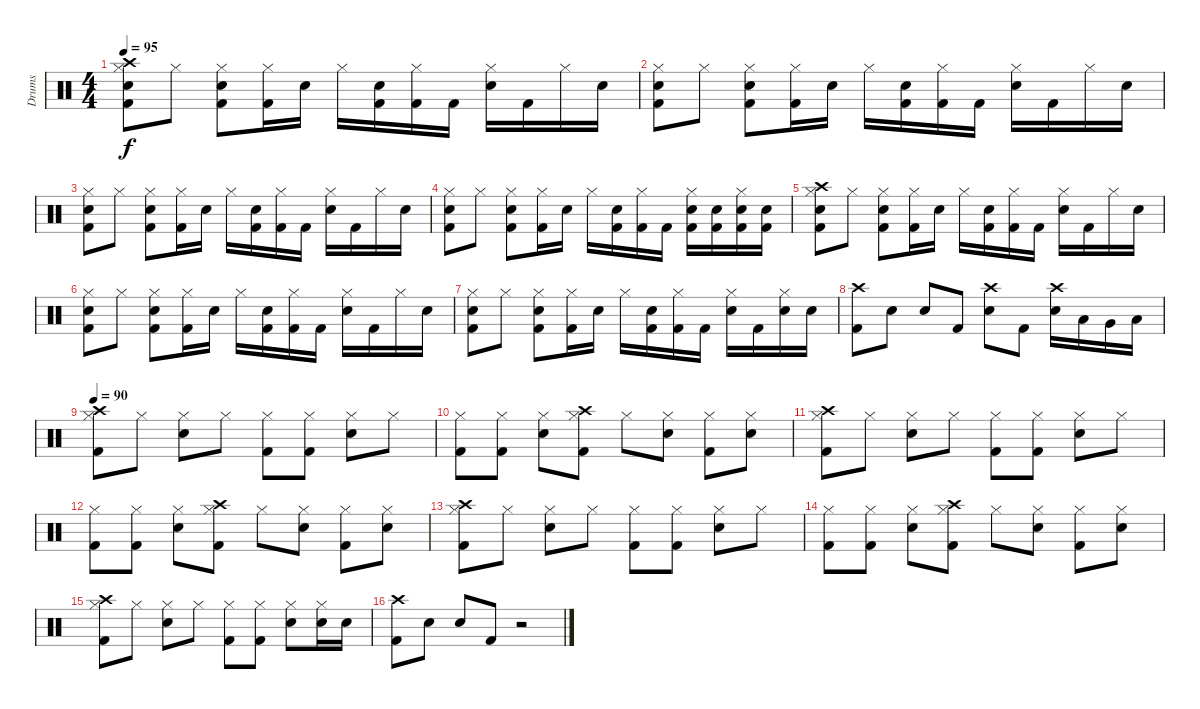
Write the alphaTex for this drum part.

\track ("Drums" "Drums") {instrument percussion}
\staff {score}
\articulation defaults
\ts (4 4)
\tempo 95
\clef neutral
\ks c
("Hi-Hat (closed)" "Kick (hit) 2" "Crash high (hit)" "Electric Snare (hit)").8{dy f} "Hi-Hat (closed)".8 ("Hi-Hat (closed)" "Kick (hit) 2" "Electric Snare (hit)").8 ("Hi-Hat (closed)" "Kick (hit) 2").16 "Electric Snare (hit)".16 "Hi-Hat (closed)".16 ("Electric Snare (hit)" "Kick (hit) 2").16 ("Hi-Hat (closed)" "Kick (hit) 2").16 "Kick (hit) 2".16 ("Hi-Hat (closed)" "Electric Snare (hit)").16 "Kick (hit) 2".16 "Hi-Hat (closed)".16 "Electric Snare (hit)".16 |
("Hi-Hat (closed)" "Kick (hit) 2" "Electric Snare (hit)").8 "Hi-Hat (closed)".8 ("Hi-Hat (closed)" "Kick (hit) 2" "Electric Snare (hit)").8 ("Hi-Hat (closed)" "Kick (hit) 2").16 "Electric Snare (hit)".16 "Hi-Hat (closed)".16 ("Electric Snare (hit)" "Kick (hit) 2").16 ("Hi-Hat (closed)" "Kick (hit) 2").16 "Kick (hit) 2".16 ("Hi-Hat (closed)" "Electric Snare (hit)").16 "Kick (hit) 2".16 "Hi-Hat (closed)".16 "Electric Snare (hit)".16 |
("Hi-Hat (closed)" "Kick (hit) 2" "Electric Snare (hit)").8 "Hi-Hat (closed)".8 ("Hi-Hat (closed)" "Kick (hit) 2" "Electric Snare (hit)").8 ("Hi-Hat (closed)" "Kick (hit) 2").16 "Electric Snare (hit)".16 "Hi-Hat (closed)".16 ("Electric Snare (hit)" "Kick (hit) 2").16 ("Hi-Hat (closed)" "Kick (hit) 2").16 "Kick (hit) 2".16 ("Hi-Hat (closed)" "Electric Snare (hit)").16 "Kick (hit) 2".16 "Hi-Hat (closed)".16 "Electric Snare (hit)".16 |
("Hi-Hat (closed)" "Kick (hit) 2" "Electric Snare (hit)").8 "Hi-Hat (closed)".8 ("Hi-Hat (closed)" "Kick (hit) 2" "Electric Snare (hit)").8 ("Hi-Hat (closed)" "Kick (hit) 2").16 "Electric Snare (hit)".16 "Hi-Hat (closed)".16 ("Electric Snare (hit)" "Kick (hit) 2").16 ("Hi-Hat (closed)" "Kick (hit) 2").16 "Kick (hit) 2".16 ("Kick (hit) 2" "Hi-Hat (closed)" "Electric Snare (hit)").16 ("Electric Snare (hit)" "Kick (hit) 2").16 ("Kick (hit) 2" "Hi-Hat (closed)" "Electric Snare (hit)").16 ("Kick (hit) 2" "Electric Snare (hit)").16 |
("Hi-Hat (closed)" "Kick (hit) 2" "Crash high (hit)" "Electric Snare (hit)").8 "Hi-Hat (closed)".8 ("Hi-Hat (closed)" "Kick (hit) 2" "Electric Snare (hit)").8 ("Hi-Hat (closed)" "Kick (hit) 2").16 "Electric Snare (hit)".16 "Hi-Hat (closed)".16 ("Electric Snare (hit)" "Kick (hit) 2").16 ("Hi-Hat (closed)" "Kick (hit) 2").16 "Kick (hit) 2".16 ("Hi-Hat (closed)" "Electric Snare (hit)").16 "Kick (hit) 2".16 "Hi-Hat (closed)".16 "Electric Snare (hit)".16 |
("Hi-Hat (closed)" "Kick (hit) 2" "Electric Snare (hit)").8 "Hi-Hat (closed)".8 ("Hi-Hat (closed)" "Kick (hit) 2" "Electric Snare (hit)").8 ("Hi-Hat (closed)" "Kick (hit) 2").16 "Electric Snare (hit)".16 "Hi-Hat (closed)".16 ("Electric Snare (hit)" "Kick (hit) 2").16 ("Hi-Hat (closed)" "Kick (hit) 2").16 "Kick (hit) 2".16 ("Hi-Hat (closed)" "Electric Snare (hit)").16 "Kick (hit) 2".16 "Hi-Hat (closed)".16 "Electric Snare (hit)".16 |
("Hi-Hat (closed)" "Kick (hit) 2" "Electric Snare (hit)").8 "Hi-Hat (closed)".8 ("Hi-Hat (closed)" "Kick (hit) 2" "Electric Snare (hit)").8 ("Hi-Hat (closed)" "Kick (hit) 2").16 "Electric Snare (hit)".16 "Hi-Hat (closed)".16 ("Electric Snare (hit)" "Kick (hit) 2").16 ("Hi-Hat (closed)" "Kick (hit) 2").16 "Kick (hit) 2".16 ("Hi-Hat (closed)" "Electric Snare (hit)").16 "Kick (hit) 2".16 ("Hi-Hat (closed)" "Electric Snare (hit)").16 "Electric Snare (hit)".16 |
("Crash high (hit)" "Kick (hit) 2").8 "Electric Snare (hit)".8 "Electric Snare (hit)".8 "Kick (hit) 2".8 ("Crash high (hit)" "Electric Snare (hit)").8 "Kick (hit) 2".8 ("Crash high (hit)" "Electric Snare (hit)").16 "Low Tom (hit)".16 "Very Low Tom (hit)".16 "Low Floor Tom (hit)".16 |
\tempo 90
("Crash high (hit)" "Hi-Hat (closed)" "Kick (hit) 2").8 "Hi-Hat (closed)".8 ("Hi-Hat (closed)" "Electric Snare (hit)").8 "Hi-Hat (closed)".8 ("Hi-Hat (closed)" "Kick (hit) 2").8 ("Hi-Hat (closed)" "Kick (hit) 2").8 ("Hi-Hat (closed)" "Electric Snare (hit)").8 "Hi-Hat (closed)".8 |
("Hi-Hat (closed)" "Kick (hit) 2").8 ("Hi-Hat (closed)" "Kick (hit) 2").8 ("Hi-Hat (closed)" "Electric Snare (hit)").8 ("Crash high (hit)" "Hi-Hat (closed)" "Kick (hit) 2").8 "Hi-Hat (closed)".8 ("Hi-Hat (closed)" "Electric Snare (hit)").8 ("Hi-Hat (closed)" "Kick (hit) 2").8 ("Hi-Hat (closed)" "Electric Snare (hit)").8 |
("Crash high (hit)" "Hi-Hat (closed)" "Kick (hit) 2").8 "Hi-Hat (closed)".8 ("Hi-Hat (closed)" "Electric Snare (hit)").8 "Hi-Hat (closed)".8 ("Hi-Hat (closed)" "Kick (hit) 2").8 ("Hi-Hat (closed)" "Kick (hit) 2").8 ("Hi-Hat (closed)" "Electric Snare (hit)").8 "Hi-Hat (closed)".8 |
("Hi-Hat (closed)" "Kick (hit) 2").8 ("Hi-Hat (closed)" "Kick (hit) 2").8 ("Hi-Hat (closed)" "Electric Snare (hit)").8 ("Crash high (hit)" "Hi-Hat (closed)" "Kick (hit) 2").8 "Hi-Hat (closed)".8 ("Hi-Hat (closed)" "Electric Snare (hit)").8 ("Hi-Hat (closed)" "Kick (hit) 2").8 ("Hi-Hat (closed)" "Electric Snare (hit)").8 |
("Crash high (hit)" "Hi-Hat (closed)" "Kick (hit) 2").8 "Hi-Hat (closed)".8 ("Hi-Hat (closed)" "Electric Snare (hit)").8 "Hi-Hat (closed)".8 ("Hi-Hat (closed)" "Kick (hit) 2").8 ("Hi-Hat (closed)" "Kick (hit) 2").8 ("Hi-Hat (closed)" "Electric Snare (hit)").8 "Hi-Hat (closed)".8 |
("Hi-Hat (closed)" "Kick (hit) 2").8 ("Hi-Hat (closed)" "Kick (hit) 2").8 ("Hi-Hat (closed)" "Electric Snare (hit)").8 ("Crash high (hit)" "Hi-Hat (closed)" "Kick (hit) 2").8 "Hi-Hat (closed)".8 ("Hi-Hat (closed)" "Electric Snare (hit)").8 ("Hi-Hat (closed)" "Kick (hit) 2").8 ("Hi-Hat (closed)" "Electric Snare (hit)").8 |
("Crash high (hit)" "Hi-Hat (closed)" "Kick (hit) 2").8 "Hi-Hat (closed)".8 ("Hi-Hat (closed)" "Electric Snare (hit)").8 "Hi-Hat (closed)".8 ("Hi-Hat (closed)" "Kick (hit) 2").8 ("Hi-Hat (closed)" "Kick (hit) 2").8 ("Hi-Hat (closed)" "Electric Snare (hit)").8 ("Electric Snare (hit)" "Hi-Hat (closed)").16 "Electric Snare (hit)".16 |
("Crash high (hit)" "Kick (hit) 2").8 "Electric Snare (hit)".8 "Electric Snare (hit)".8 "Kick (hit) 2".8 r.2
